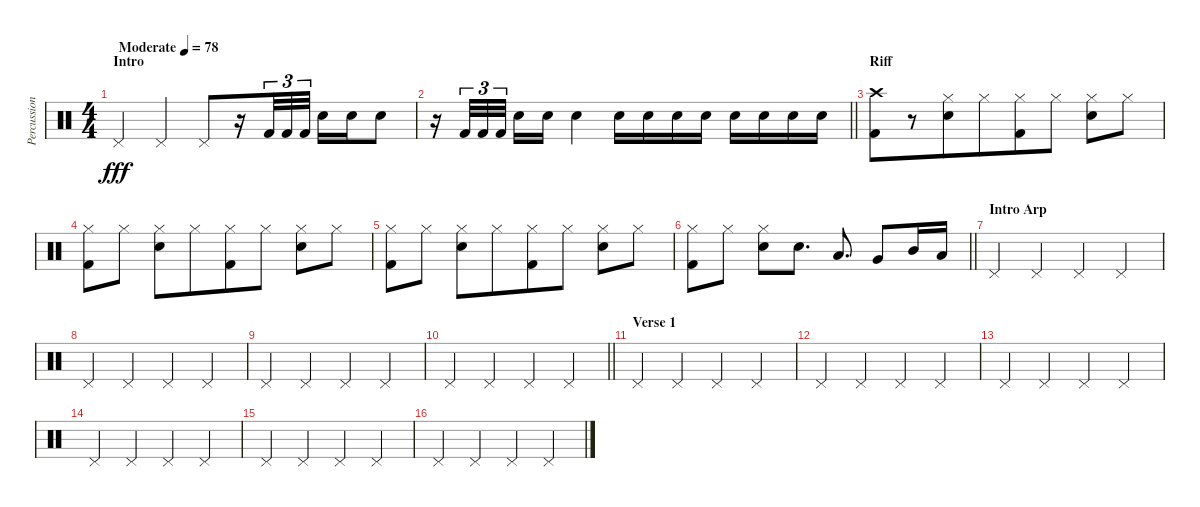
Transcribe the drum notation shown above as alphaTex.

\track ("Percussion" "Percussion") {instrument percussion}
\staff {score}
\articulation defaults
\ts (4 4)
\section ("" "Intro")
\tempo (78 "Moderate")
\clef neutral
\ks c "Pedal Hi-Hat (hit)".4{dy fff} "Pedal Hi-Hat (hit)".4{beam merge} "Pedal Hi-Hat (hit)".8{beam merge}
r.16{beam merge} "Kick (hit) 2".32{tu (3 2) beam merge} "Kick (hit) 2".32{tu (3 2)} "Kick (hit) 2".32{tu (3 2)} "Electric Snare (hit)".16{beam merge} "Electric Snare (hit)".16{beam merge} "Electric Snare (hit)".8 |
\barLineRight lightlight
r.16{beam merge} "Kick (hit) 2".32{tu (3 2) beam merge} "Kick (hit) 2".32{tu (3 2)} "Kick (hit) 2".32{tu (3 2) beam splitsecondary} "Electric Snare (hit)".16{beam merge} "Electric Snare (hit)".16 "Electric Snare (hit)".4 "Electric Snare (hit)".16 "Electric Snare (hit)".16{beam merge} "Electric Snare (hit)".16 "Electric Snare (hit)".16 "Electric Snare (hit)".16 "Electric Snare (hit)".16{beam merge} "Electric Snare (hit)".16{beam merge} "Electric Snare (hit)".16 |
\section ("" "Riff")
("Kick (hit) 2" "Crash high (hit)").8{beam merge} r.8 ("Electric Snare (hit)" "Hi-Hat (closed)").8 "Hi-Hat (closed)".8{beam merge} ("Kick (hit) 2" "Hi-Hat (closed)").8 "Hi-Hat (closed)".8 ("Electric Snare (hit)" "Hi-Hat (closed)").8{beam merge} "Hi-Hat (closed)".8 |
("Kick (hit) 2" "Hi-Hat (closed)").8{beam merge} "Hi-Hat (closed)".8 ("Electric Snare (hit)" "Hi-Hat (closed)").8 "Hi-Hat (closed)".8{beam merge} ("Kick (hit) 2" "Hi-Hat (closed)").8 "Hi-Hat (closed)".8 ("Electric Snare (hit)" "Hi-Hat (closed)").8{beam merge} "Hi-Hat (closed)".8 |
("Kick (hit) 2" "Hi-Hat (closed)").8{beam merge} "Hi-Hat (closed)".8 ("Electric Snare (hit)" "Hi-Hat (closed)").8 "Hi-Hat (closed)".8{beam merge} ("Kick (hit) 2" "Hi-Hat (closed)").8 "Hi-Hat (closed)".8 ("Electric Snare (hit)" "Hi-Hat (closed)").8{beam merge} "Hi-Hat (closed)".8 |
\barLineRight lightlight
("Kick (hit) 2" "Hi-Hat (closed)").8{beam merge} "Hi-Hat (closed)".8 ("Electric Snare (hit)" "Hi-Hat (closed)").8{beam merge} "Electric Snare (hit)".8{d} "Low Tom (hit)".8{d} "Very Low Tom (hit)".8{beam merge} "Mid Tom (hit)".16 "Low Tom (hit)".16 |
\section ("" "Intro Arp")
"Pedal Hi-Hat (hit)".4 "Pedal Hi-Hat (hit)".4 "Pedal Hi-Hat (hit)".4{beam merge} "Pedal Hi-Hat (hit)".4 |
"Pedal Hi-Hat (hit)".4 "Pedal Hi-Hat (hit)".4 "Pedal Hi-Hat (hit)".4 "Pedal Hi-Hat (hit)".4 |
"Pedal Hi-Hat (hit)".4 "Pedal Hi-Hat (hit)".4{beam merge} "Pedal Hi-Hat (hit)".4 "Pedal Hi-Hat (hit)".4 |
\barLineRight lightlight "Pedal Hi-Hat (hit)".4 "Pedal Hi-Hat (hit)".4{beam merge} "Pedal Hi-Hat (hit)".4 "Pedal Hi-Hat (hit)".4
|
\section ("" "Verse 1")
"Pedal Hi-Hat (hit)".4 "Pedal Hi-Hat (hit)".4 "Pedal Hi-Hat (hit)".4 "Pedal Hi-Hat (hit)".4 |
"Pedal Hi-Hat (hit)".4 "Pedal Hi-Hat (hit)".4{beam merge} "Pedal Hi-Hat (hit)".4 "Pedal Hi-Hat (hit)".4 |
"Pedal Hi-Hat (hit)".4 "Pedal Hi-Hat (hit)".4 "Pedal Hi-Hat (hit)".4 "Pedal Hi-Hat (hit)".4 |
"Pedal Hi-Hat (hit)".4 "Pedal Hi-Hat (hit)".4{beam merge} "Pedal Hi-Hat (hit)".4 "Pedal Hi-Hat (hit)".4 |
"Pedal Hi-Hat (hit)".4 "Pedal Hi-Hat (hit)".4 "Pedal Hi-Hat (hit)".4 "Pedal Hi-Hat (hit)".4 |
"Pedal Hi-Hat (hit)".4 "Pedal Hi-Hat (hit)".4{beam merge} "Pedal Hi-Hat (hit)".4 "Pedal Hi-Hat (hit)".4
